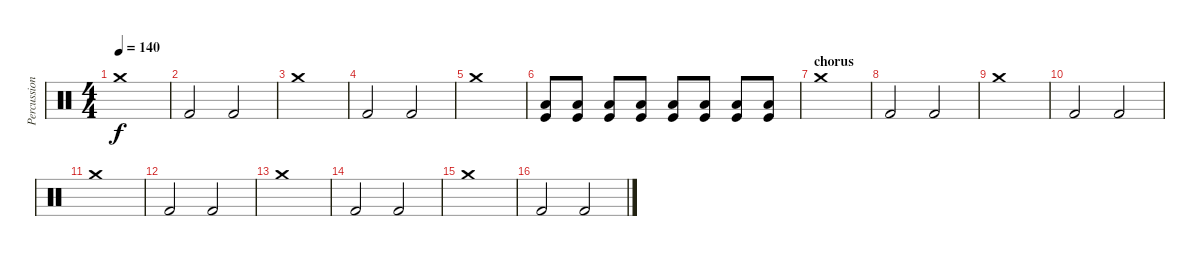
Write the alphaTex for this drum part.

\track ("Percussion" "Percussion") {instrument percussion}
\staff {score}
\articulation defaults
\ts (4 4)
\tempo 140
\clef neutral
\ks c "Crash medium (hit)".1{dy f}
|
"Kick (hit) 2".2 "Kick (hit) 2".2 |
"Crash medium (hit)".1 |
"Kick (hit) 2".2 "Kick (hit) 2".2 |
"Crash medium (hit)".1 |
("Kick (hit)" "Low Floor Tom (hit)").8 ("Kick (hit)" "Low Floor Tom (hit)").8 ("Kick (hit)" "Low Floor Tom (hit)").8 ("Kick (hit)" "Low Floor Tom (hit)").8 ("Kick (hit)" "Low Floor Tom (hit)").8 ("Kick (hit)" "Low Floor Tom (hit)").8 ("Kick (hit)" "Low Floor Tom (hit)").8 ("Kick (hit)" "Low Floor Tom (hit)").8 |
\section ("" "chorus")
"Crash medium (hit)".1 |
"Kick (hit) 2".2 "Kick (hit) 2".2 |
"Crash medium (hit)".1 |
"Kick (hit) 2".2 "Kick (hit) 2".2 |
"Crash medium (hit)".1 |
"Kick (hit) 2".2 "Kick (hit) 2".2 |
"Crash medium (hit)".1 |
"Kick (hit) 2".2 "Kick (hit) 2".2 |
"Crash medium (hit)".1 |
"Kick (hit) 2".2 "Kick (hit) 2".2
